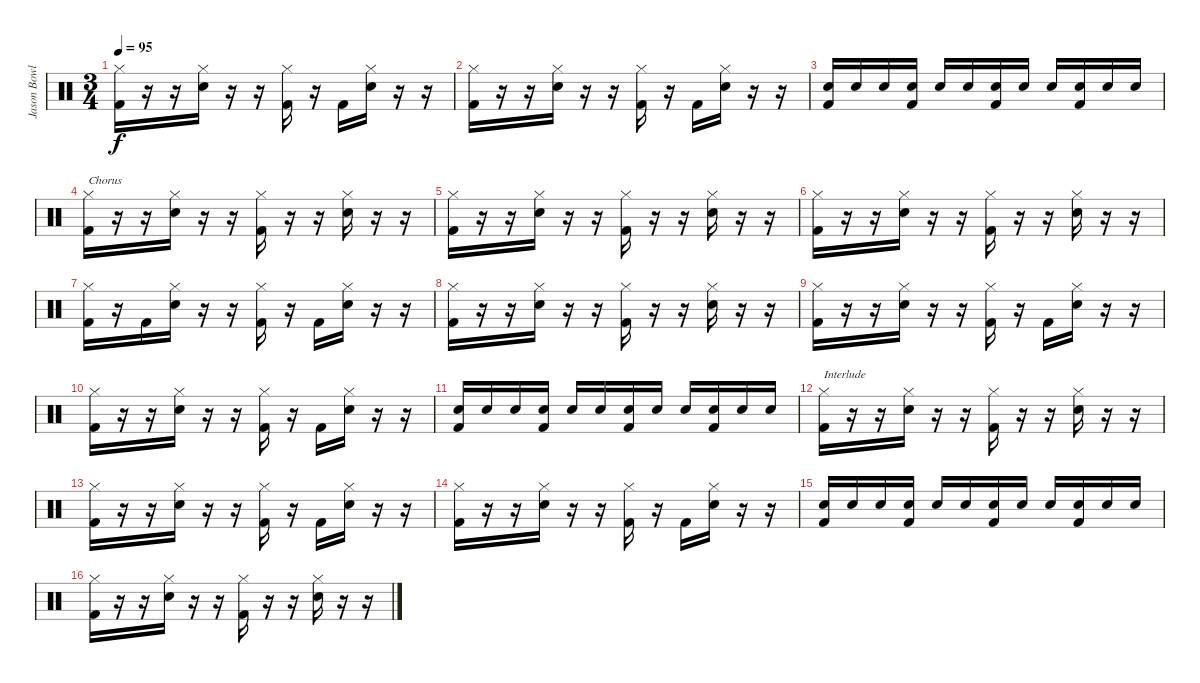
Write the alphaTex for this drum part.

\track ("Jason Bowld" "Jason Bowl") {instrument percussion}
\staff {score}
\articulation defaults
\ts (3 4)
\tempo 95
\clef neutral
\ks c
("Hi-Hat (closed)" "Kick (hit) 2").16{dy f} r.16 r.16 ("Hi-Hat (closed)" "Snare (hit) 2").16 r.16 r.16 ("Hi-Hat (closed)" "Kick (hit) 2").16 r.16 "Kick (hit) 2".16 ("Hi-Hat (closed)" "Snare (hit) 2").16 r.16 r.16 |
("Hi-Hat (closed)" "Kick (hit) 2").16 r.16 r.16 ("Hi-Hat (closed)" "Snare (hit) 2").16 r.16 r.16 ("Hi-Hat (closed)" "Kick (hit) 2").16 r.16 "Kick (hit) 2".16 ("Hi-Hat (closed)" "Snare (hit) 2").16 r.16 r.16 |
("Kick (hit) 2" "Snare (hit) 2").16 "Snare (hit) 2".16 "Snare (hit) 2".16 ("Kick (hit) 2" "Snare (hit) 2").16 "Snare (hit) 2".16 "Snare (hit) 2".16 ("Kick (hit) 2" "Snare (hit) 2").16 "Snare (hit) 2".16 "Snare (hit) 2".16 ("Kick (hit) 2" "Snare (hit) 2").16 "Snare (hit) 2".16 "Snare (hit) 2".16 |
("Hi-Hat (closed)" "Kick (hit) 2").16{txt "Chorus"} r.16 r.16 ("Hi-Hat (closed)" "Snare (hit) 2").16 r.16 r.16 ("Hi-Hat (closed)" "Kick (hit) 2").16 r.16 r.16 ("Hi-Hat (closed)" "Snare (hit) 2").16 r.16 r.16 |
("Hi-Hat (closed)" "Kick (hit) 2").16 r.16 r.16 ("Hi-Hat (closed)" "Snare (hit) 2").16 r.16 r.16 ("Hi-Hat (closed)" "Kick (hit) 2").16 r.16 r.16 ("Hi-Hat (closed)" "Snare (hit) 2").16 r.16 r.16 |
("Hi-Hat (closed)" "Kick (hit) 2").16 r.16 r.16 ("Hi-Hat (closed)" "Snare (hit) 2").16 r.16 r.16 ("Hi-Hat (closed)" "Kick (hit) 2").16 r.16 r.16 ("Hi-Hat (closed)" "Snare (hit) 2").16 r.16 r.16 |
("Hi-Hat (closed)" "Kick (hit) 2").16 r.16 "Kick (hit) 2".16 ("Hi-Hat (closed)" "Snare (hit) 2").16 r.16 r.16 ("Hi-Hat (closed)" "Kick (hit) 2").16 r.16 "Kick (hit) 2".16 ("Hi-Hat (closed)" "Snare (hit) 2").16 r.16 r.16 |
("Hi-Hat (closed)" "Kick (hit) 2").16 r.16 r.16 ("Hi-Hat (closed)" "Snare (hit) 2").16 r.16 r.16 ("Hi-Hat (closed)" "Kick (hit) 2").16 r.16 r.16 ("Hi-Hat (closed)" "Snare (hit) 2").16 r.16 r.16 |
("Hi-Hat (closed)" "Kick (hit) 2").16 r.16 r.16 ("Hi-Hat (closed)" "Snare (hit) 2").16 r.16 r.16 ("Hi-Hat (closed)" "Kick (hit) 2").16 r.16 "Kick (hit) 2".16 ("Hi-Hat (closed)" "Snare (hit) 2").16 r.16 r.16 |
("Hi-Hat (closed)" "Kick (hit) 2").16 r.16 r.16 ("Hi-Hat (closed)" "Snare (hit) 2").16 r.16 r.16 ("Hi-Hat (closed)" "Kick (hit) 2").16 r.16 "Kick (hit) 2".16 ("Hi-Hat (closed)" "Snare (hit) 2").16 r.16 r.16 |
("Kick (hit) 2" "Snare (hit) 2").16 "Snare (hit) 2".16 "Snare (hit) 2".16 ("Kick (hit) 2" "Snare (hit) 2").16 "Snare (hit) 2".16 "Snare (hit) 2".16 ("Kick (hit) 2" "Snare (hit) 2").16 "Snare (hit) 2".16 "Snare (hit) 2".16 ("Kick (hit) 2" "Snare (hit) 2").16 "Snare (hit) 2".16 "Snare (hit) 2".16 |
("Hi-Hat (closed)" "Kick (hit) 2").16{txt "Interlude"} r.16 r.16 ("Hi-Hat (closed)" "Snare (hit) 2").16 r.16 r.16 ("Hi-Hat (closed)" "Kick (hit) 2").16 r.16 r.16 ("Hi-Hat (closed)" "Snare (hit) 2").16 r.16 r.16 |
("Hi-Hat (closed)" "Kick (hit) 2").16 r.16 r.16 ("Hi-Hat (closed)" "Snare (hit) 2").16 r.16 r.16 ("Hi-Hat (closed)" "Kick (hit) 2").16 r.16 "Kick (hit) 2".16 ("Hi-Hat (closed)" "Snare (hit) 2").16 r.16 r.16 |
("Hi-Hat (closed)" "Kick (hit) 2").16 r.16 r.16 ("Hi-Hat (closed)" "Snare (hit) 2").16 r.16 r.16 ("Hi-Hat (closed)" "Kick (hit) 2").16 r.16 "Kick (hit) 2".16 ("Hi-Hat (closed)" "Snare (hit) 2").16 r.16 r.16 |
("Kick (hit) 2" "Snare (hit) 2").16 "Snare (hit) 2".16 "Snare (hit) 2".16 ("Kick (hit) 2" "Snare (hit) 2").16 "Snare (hit) 2".16 "Snare (hit) 2".16 ("Kick (hit) 2" "Snare (hit) 2").16 "Snare (hit) 2".16 "Snare (hit) 2".16 ("Kick (hit) 2" "Snare (hit) 2").16 "Snare (hit) 2".16 "Snare (hit) 2".16 |
("Hi-Hat (closed)" "Kick (hit) 2").16 r.16 r.16 ("Hi-Hat (closed)" "Snare (hit) 2").16 r.16 r.16 ("Hi-Hat (closed)" "Kick (hit) 2").16 r.16 r.16 ("Hi-Hat (closed)" "Snare (hit) 2").16 r.16 r.16
